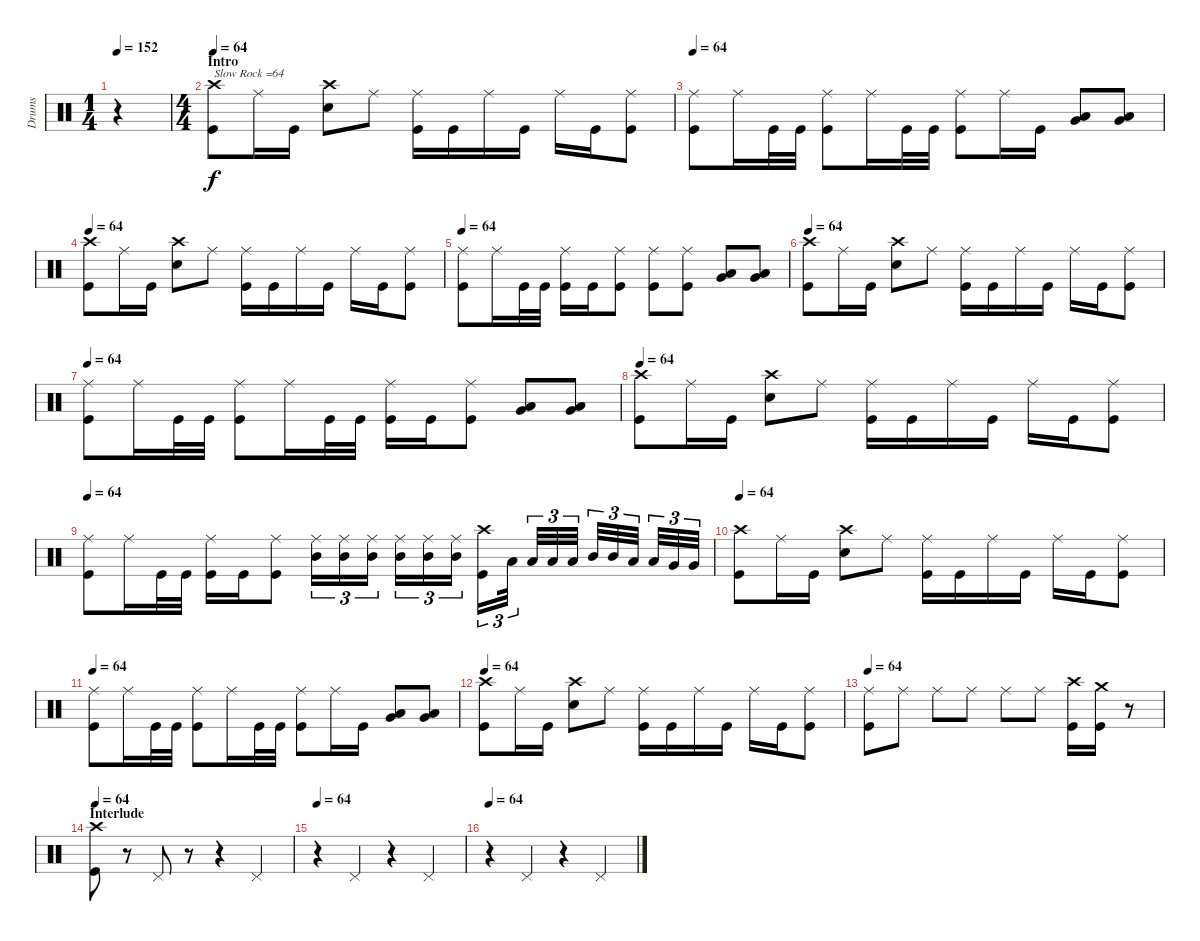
\track ("Drums" "Drums") {instrument percussion}
\staff {score}
\articulation defaults
\ts (1 4)
\tempo 152
\tempo 64
\tempo 152
\clef neutral
\ks c
r.4{dy f} |
\ts (4 4)
\section ("" "Intro")
\tempo 64
("Crash high (hit)" "Kick (hit)").8{txt "Slow Rock =64"} "Ride (middle)".16 "Kick (hit)".16 ("Crash high (hit)" "Snare (hit) 2").8 "Ride (middle)".8 ("Ride (middle)" "Kick (hit)").16 "Kick (hit)".16 "Ride (middle)".16 "Kick (hit)".16 "Ride (middle)".16 "Kick (hit)".16 ("Ride (middle)" "Kick (hit)").8 |
\tempo 64
("Ride (middle)" "Kick (hit)").8 "Ride (middle)".16 "Kick (hit)".32 "Kick (hit)".32 ("Ride (middle)" "Kick (hit)").8 "Ride (middle)".16 "Kick (hit)".32 "Kick (hit)".32 ("Ride (middle)" "Kick (hit)").8 "Ride (middle)".16 "Kick (hit)".16 ("Low Floor Tom (hit)" "Very Low Tom (hit)").8 ("Low Floor Tom (hit)" "Very Low Tom (hit)").8 |
\tempo 64
("Crash high (hit)" "Kick (hit)").8 "Ride (middle)".16 "Kick (hit)".16 ("Crash high (hit)" "Snare (hit) 2").8 "Ride (middle)".8 ("Ride (middle)" "Kick (hit)").16 "Kick (hit)".16 "Ride (middle)".16 "Kick (hit)".16 "Ride (middle)".16 "Kick (hit)".16 ("Ride (middle)" "Kick (hit)").8 |
\tempo 64
("Ride (middle)" "Kick (hit)").8 "Ride (middle)".16 "Kick (hit)".32 "Kick (hit)".32 ("Ride (middle)" "Kick (hit)").16 "Kick (hit)".16 ("Ride (middle)" "Kick (hit)").8 ("Ride (middle)" "Kick (hit)").8 ("Ride (middle)" "Kick (hit)").8 ("Low Floor Tom (hit)" "Very Low Tom (hit)").8 ("Low Floor Tom (hit)" "Very Low Tom (hit)").8 |
\tempo 64
("Crash high (hit)" "Kick (hit)").8 "Ride (middle)".16 "Kick (hit)".16 ("Crash high (hit)" "Snare (hit) 2").8 "Ride (middle)".8 ("Ride (middle)" "Kick (hit)").16 "Kick (hit)".16 "Ride (middle)".16 "Kick (hit)".16 "Ride (middle)".16 "Kick (hit)".16 ("Ride (middle)" "Kick (hit)").8 |
\tempo 64
("Ride (middle)" "Kick (hit)").8 "Ride (middle)".16 "Kick (hit)".32 "Kick (hit)".32 ("Ride (middle)" "Kick (hit)").8 "Ride (middle)".16 "Kick (hit)".32 "Kick (hit)".32 ("Ride (middle)" "Kick (hit)").16 "Kick (hit)".16 ("Ride (middle)" "Kick (hit)").8 ("Low Floor Tom (hit)" "Very Low Tom (hit)").8 ("Low Floor Tom (hit)" "Very Low Tom (hit)").8 |
\tempo 64
("Crash high (hit)" "Kick (hit)").8 "Ride (middle)".16 "Kick (hit)".16 ("Crash high (hit)" "Snare (hit) 2").8 "Ride (middle)".8 ("Ride (middle)" "Kick (hit)").16 "Kick (hit)".16 "Ride (middle)".16 "Kick (hit)".16 "Ride (middle)".16 "Kick (hit)".16 ("Ride (middle)" "Kick (hit)").8 |
\tempo 64
("Ride (middle)" "Kick (hit)").8 "Ride (middle)".16 "Kick (hit)".32 "Kick (hit)".32 ("Ride (middle)" "Kick (hit)").16 "Kick (hit)".16 ("Ride (middle)" "Kick (hit)").8 ("Ride (middle)" "Mid Tom (hit)").16{tu (3 2)} ("Ride (middle)" "Mid Tom (hit)").16{tu (3 2)} ("Ride (middle)" "Mid Tom (hit)").16{tu (3 2)} ("Ride (middle)" "Mid Tom (hit)").16{tu (3 2)} ("Ride (middle)" "Mid Tom (hit)").16{tu (3 2)} ("Ride (middle)" "Mid Tom (hit)").16{tu (3 2)} ("Crash high (hit)" "Kick (hit)").16{tu (3 2)} "Low Tom (hit)".32{tu (3 2)} "Low Tom (hit)".32{tu (3 2)} "Low Tom (hit)".32{tu (3 2)} "Low Tom (hit)".32{tu (3 2)} "Mid Tom (hit)".32{tu (3 2)} "Mid Tom (hit)".32{tu (3 2)} "Low Tom (hit)".32{tu (3 2)} "Low Tom (hit)".32{tu (3 2)} "Very Low Tom (hit)".32{tu (3 2)} "Very Low Tom (hit)".32{tu (3 2)} |
\tempo 64
("Crash high (hit)" "Kick (hit)").8 "Ride (middle)".16 "Kick (hit)".16 ("Crash high (hit)" "Snare (hit) 2").8 "Ride (middle)".8 ("Ride (middle)" "Kick (hit)").16 "Kick (hit)".16 "Ride (middle)".16 "Kick (hit)".16 "Ride (middle)".16 "Kick (hit)".16 ("Ride (middle)" "Kick (hit)").8 |
\tempo 64
("Ride (middle)" "Kick (hit)").8 "Ride (middle)".16 "Kick (hit)".32 "Kick (hit)".32 ("Ride (middle)" "Kick (hit)").8 "Ride (middle)".16 "Kick (hit)".32 "Kick (hit)".32 ("Ride (middle)" "Kick (hit)").8 "Ride (middle)".16 "Kick (hit)".16 ("Low Floor Tom (hit)" "Very Low Tom (hit)").8 ("Low Floor Tom (hit)" "Very Low Tom (hit)").8 |
\tempo 64
("Crash high (hit)" "Kick (hit)").8 "Ride (middle)".16 "Kick (hit)".16 ("Crash high (hit)" "Snare (hit) 2").8 "Ride (middle)".8 ("Ride (middle)" "Kick (hit)").16 "Kick (hit)".16 "Ride (middle)".16 "Kick (hit)".16 "Ride (middle)".16 "Kick (hit)".16 ("Ride (middle)" "Kick (hit)").8 |
\tempo 64
("Ride (middle)" "Kick (hit)").8 "Ride (middle)".8 "Ride (middle)".8 "Ride (middle)".8 "Ride (middle)".8 "Ride (middle)".8 ("Crash high (hit)" "Kick (hit)").16 ("Crash medium (hit)" "Kick (hit)").16 r.8 |
\section ("" "Interlude")
\tempo 64
("Crash high (hit)" "Kick (hit)").8 r.8 "Pedal Hi-Hat (hit)".8 r.8 r.4 "Pedal Hi-Hat (hit)".4 |
\tempo 64
r.4 "Pedal Hi-Hat (hit)".4 r.4 "Pedal Hi-Hat (hit)".4 |
\tempo 64
r.4 "Pedal Hi-Hat (hit)".4 r.4 "Pedal Hi-Hat (hit)".4
